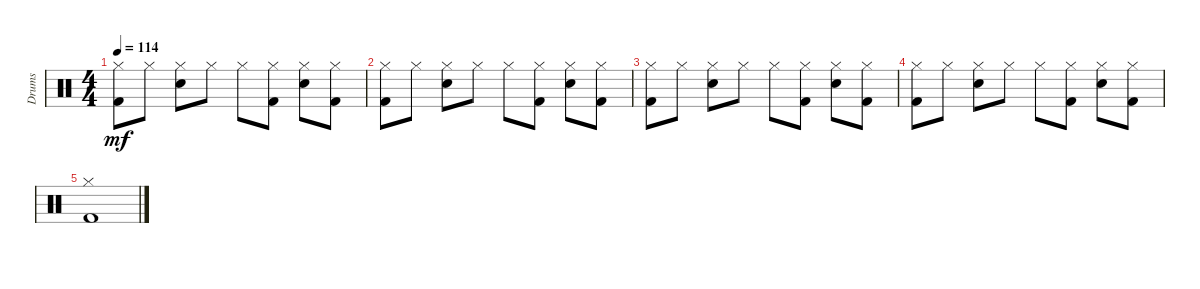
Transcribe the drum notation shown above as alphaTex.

\track ("Drums" "Drums") {instrument percussion}
\staff {score}
\articulation defaults
\ts (4 4)
\tempo 114
\clef neutral
\ks c
("Hi-Hat (closed)" "Kick (hit) 2").8{dy mf} "Hi-Hat (closed)".8 ("Hi-Hat (closed)" "Electric Snare (hit)").8 "Hi-Hat (closed)".8 "Hi-Hat (closed)".8 ("Hi-Hat (closed)" "Kick (hit) 2").8 ("Hi-Hat (closed)" "Electric Snare (hit)").8 ("Hi-Hat (closed)" "Kick (hit) 2").8 |
("Hi-Hat (closed)" "Kick (hit) 2").8 "Hi-Hat (closed)".8 ("Hi-Hat (closed)" "Electric Snare (hit)").8 "Hi-Hat (closed)".8 "Hi-Hat (closed)".8 ("Hi-Hat (closed)" "Kick (hit) 2").8 ("Hi-Hat (closed)" "Electric Snare (hit)").8 ("Hi-Hat (closed)" "Kick (hit) 2").8 |
("Hi-Hat (closed)" "Kick (hit) 2").8 "Hi-Hat (closed)".8 ("Hi-Hat (closed)" "Electric Snare (hit)").8 "Hi-Hat (closed)".8 "Hi-Hat (closed)".8 ("Hi-Hat (closed)" "Kick (hit) 2").8 ("Hi-Hat (closed)" "Electric Snare (hit)").8 ("Hi-Hat (closed)" "Kick (hit) 2").8 |
("Hi-Hat (closed)" "Kick (hit) 2").8 "Hi-Hat (closed)".8 ("Hi-Hat (closed)" "Electric Snare (hit)").8 "Hi-Hat (closed)".8 "Hi-Hat (closed)".8 ("Hi-Hat (closed)" "Kick (hit) 2").8 ("Hi-Hat (closed)" "Electric Snare (hit)").8 ("Hi-Hat (closed)" "Kick (hit) 2").8 |
("Hi-Hat (closed)" "Kick (hit) 2").1
